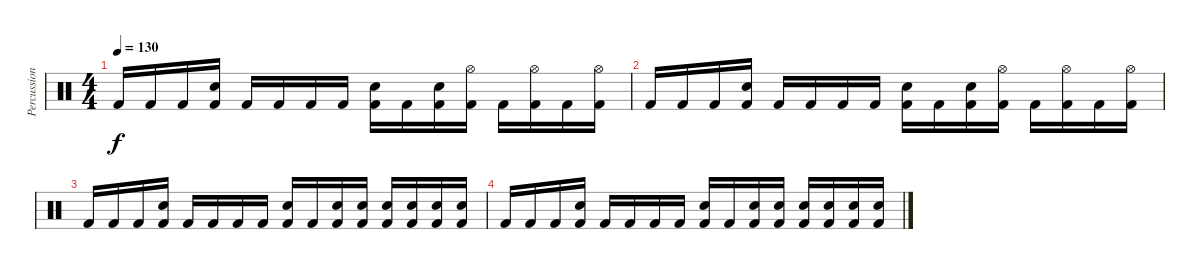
\track ("Percussion" "Percussion") {instrument percussion}
\staff {score}
\articulation defaults
\ts (4 4)
\tempo 130
\clef neutral
\ks c "Kick (hit) 2".16{dy f} "Kick (hit) 2".16 "Kick (hit) 2".16
("Electric Snare (hit)" "Kick (hit) 2").16 "Kick (hit) 2".16 "Kick (hit) 2".16 "Kick (hit) 2".16 "Kick (hit) 2".16 ("Electric Snare (hit)" "Kick (hit) 2").16 "Kick (hit) 2".16 ("Electric Snare (hit)" "Kick (hit) 2").16 ("Hi-Hat (open)" "Kick (hit) 2").16 "Kick (hit) 2".16 ("Hi-Hat (open)" "Kick (hit) 2").16 "Kick (hit) 2".16 ("Hi-Hat (open)" "Kick (hit) 2").16 |
"Kick (hit) 2".16 "Kick (hit) 2".16 "Kick (hit) 2".16 ("Electric Snare (hit)" "Kick (hit) 2").16 "Kick (hit) 2".16 "Kick (hit) 2".16 "Kick (hit) 2".16 "Kick (hit) 2".16 ("Electric Snare (hit)" "Kick (hit) 2").16 "Kick (hit) 2".16 ("Electric Snare (hit)" "Kick (hit) 2").16 ("Hi-Hat (open)" "Kick (hit) 2").16 "Kick (hit) 2".16 ("Hi-Hat (open)" "Kick (hit) 2").16 "Kick (hit) 2".16 ("Hi-Hat (open)" "Kick (hit) 2").16 |
"Kick (hit) 2".16 "Kick (hit) 2".16 "Kick (hit) 2".16 ("Electric Snare (hit)" "Kick (hit) 2").16 "Kick (hit) 2".16 "Kick (hit) 2".16 "Kick (hit) 2".16 "Kick (hit) 2".16 ("Electric Snare (hit)" "Kick (hit) 2").16 "Kick (hit) 2".16 ("Electric Snare (hit)" "Kick (hit) 2").16 ("Electric Snare (hit)" "Kick (hit) 2").16 ("Electric Snare (hit)" "Kick (hit) 2").16 ("Electric Snare (hit)" "Kick (hit) 2").16 ("Electric Snare (hit)" "Kick (hit) 2").16 ("Electric Snare (hit)" "Kick (hit) 2").16 |
"Kick (hit) 2".16 "Kick (hit) 2".16 "Kick (hit) 2".16 ("Electric Snare (hit)" "Kick (hit) 2").16 "Kick (hit) 2".16 "Kick (hit) 2".16 "Kick (hit) 2".16 "Kick (hit) 2".16 ("Electric Snare (hit)" "Kick (hit) 2").16 "Kick (hit) 2".16 ("Electric Snare (hit)" "Kick (hit) 2").16 ("Electric Snare (hit)" "Kick (hit) 2").16 ("Electric Snare (hit)" "Kick (hit) 2").16 ("Electric Snare (hit)" "Kick (hit) 2").16 ("Electric Snare (hit)" "Kick (hit) 2").16 ("Electric Snare (hit)" "Kick (hit) 2").16
